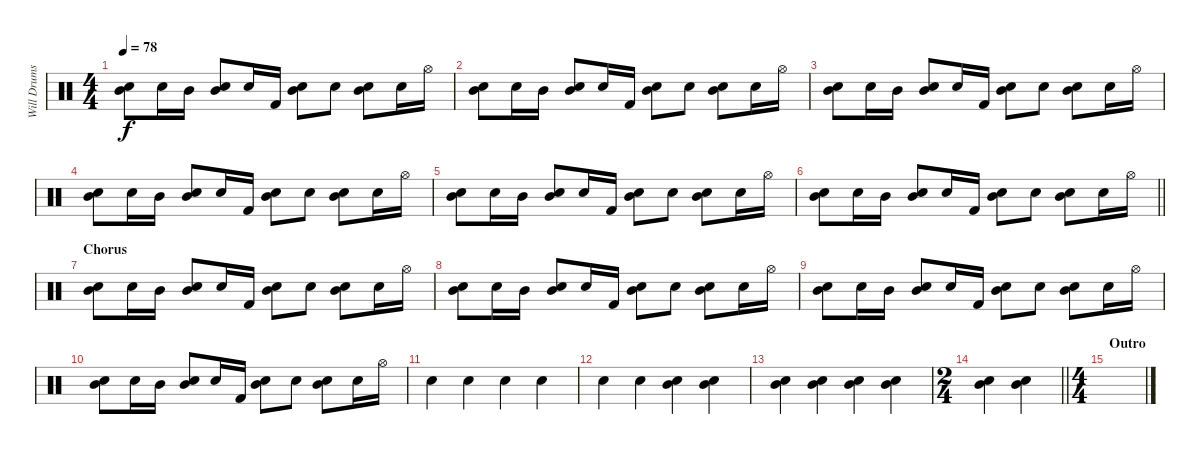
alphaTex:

\track ("Will Drums" "Will Drums") {instrument percussion}
\staff {score}
\articulation defaults
\ts (4 4)
\tempo 78
\clef neutral
\ks c
("Mid Tom (hit)" "Snare (hit) 2").8{dy f} "Snare (hit) 2".16 "Mid Tom (hit)".16 ("Mid Tom (hit)" "Snare (hit) 2").8 "Snare (hit) 2".16 "Kick (hit) 2".16 ("Mid Tom (hit)" "Snare (hit) 2").8 "Snare (hit) 2".8 ("Mid Tom (hit)" "Snare (hit) 2").8 "Snare (hit) 2".16 "Hi-Hat (open)".16 |
("Mid Tom (hit)" "Snare (hit) 2").8 "Snare (hit) 2".16 "Mid Tom (hit)".16 ("Mid Tom (hit)" "Snare (hit) 2").8 "Snare (hit) 2".16 "Kick (hit) 2".16 ("Mid Tom (hit)" "Snare (hit) 2").8 "Snare (hit) 2".8 ("Mid Tom (hit)" "Snare (hit) 2").8 "Snare (hit) 2".16 "Hi-Hat (open)".16 |
("Mid Tom (hit)" "Snare (hit) 2").8 "Snare (hit) 2".16 "Mid Tom (hit)".16 ("Mid Tom (hit)" "Snare (hit) 2").8 "Snare (hit) 2".16 "Kick (hit) 2".16 ("Mid Tom (hit)" "Snare (hit) 2").8 "Snare (hit) 2".8 ("Mid Tom (hit)" "Snare (hit) 2").8 "Snare (hit) 2".16 "Hi-Hat (open)".16 |
("Mid Tom (hit)" "Snare (hit) 2").8 "Snare (hit) 2".16 "Mid Tom (hit)".16 ("Mid Tom (hit)" "Snare (hit) 2").8 "Snare (hit) 2".16 "Kick (hit) 2".16 ("Mid Tom (hit)" "Snare (hit) 2").8 "Snare (hit) 2".8 ("Mid Tom (hit)" "Snare (hit) 2").8 "Snare (hit) 2".16 "Hi-Hat (open)".16 |
("Mid Tom (hit)" "Snare (hit) 2").8 "Snare (hit) 2".16 "Mid Tom (hit)".16 ("Mid Tom (hit)" "Snare (hit) 2").8 "Snare (hit) 2".16 "Kick (hit) 2".16 ("Mid Tom (hit)" "Snare (hit) 2").8 "Snare (hit) 2".8 ("Mid Tom (hit)" "Snare (hit) 2").8 "Snare (hit) 2".16 "Hi-Hat (open)".16 |
\barLineRight lightlight
("Mid Tom (hit)" "Snare (hit) 2").8 "Snare (hit) 2".16 "Mid Tom (hit)".16 ("Mid Tom (hit)" "Snare (hit) 2").8 "Snare (hit) 2".16 "Kick (hit) 2".16 ("Mid Tom (hit)" "Snare (hit) 2").8 "Snare (hit) 2".8 ("Mid Tom (hit)" "Snare (hit) 2").8 "Snare (hit) 2".16 "Hi-Hat (open)".16 |
\section ("" "Chorus")
("Mid Tom (hit)" "Snare (hit) 2").8 "Snare (hit) 2".16 "Mid Tom (hit)".16 ("Mid Tom (hit)" "Snare (hit) 2").8 "Snare (hit) 2".16 "Kick (hit) 2".16 ("Mid Tom (hit)" "Snare (hit) 2").8 "Snare (hit) 2".8 ("Mid Tom (hit)" "Snare (hit) 2").8 "Snare (hit) 2".16 "Hi-Hat (open)".16 |
("Mid Tom (hit)" "Snare (hit) 2").8 "Snare (hit) 2".16 "Mid Tom (hit)".16 ("Mid Tom (hit)" "Snare (hit) 2").8 "Snare (hit) 2".16 "Kick (hit) 2".16 ("Mid Tom (hit)" "Snare (hit) 2").8 "Snare (hit) 2".8 ("Mid Tom (hit)" "Snare (hit) 2").8 "Snare (hit) 2".16 "Hi-Hat (open)".16 |
("Mid Tom (hit)" "Snare (hit) 2").8 "Snare (hit) 2".16 "Mid Tom (hit)".16 ("Mid Tom (hit)" "Snare (hit) 2").8 "Snare (hit) 2".16 "Kick (hit) 2".16 ("Mid Tom (hit)" "Snare (hit) 2").8 "Snare (hit) 2".8 ("Mid Tom (hit)" "Snare (hit) 2").8 "Snare (hit) 2".16 "Hi-Hat (open)".16 |
("Mid Tom (hit)" "Snare (hit) 2").8 "Snare (hit) 2".16 "Mid Tom (hit)".16 ("Mid Tom (hit)" "Snare (hit) 2").8 "Snare (hit) 2".16 "Kick (hit) 2".16 ("Mid Tom (hit)" "Snare (hit) 2").8 "Snare (hit) 2".8 ("Mid Tom (hit)" "Snare (hit) 2").8 "Snare (hit) 2".16 "Hi-Hat (open)".16 |
"Snare (hit) 2".4 "Snare (hit) 2".4 "Snare (hit) 2".4 "Snare (hit) 2".4 |
"Snare (hit) 2".4 "Snare (hit) 2".4 ("Mid Tom (hit)" "Snare (hit) 2").4 ("Mid Tom (hit)" "Snare (hit) 2").4 |
("Mid Tom (hit)" "Snare (hit) 2").4 ("Mid Tom (hit)" "Snare (hit) 2").4 ("Mid Tom (hit)" "Snare (hit) 2").4 ("Mid Tom (hit)" "Snare (hit) 2").4 |
\ts (2 4)
\barLineRight lightlight
("Mid Tom (hit)" "Snare (hit) 2").4 ("Mid Tom (hit)" "Snare (hit) 2").4 |
\ts (4 4)
\section ("" "Outro")
